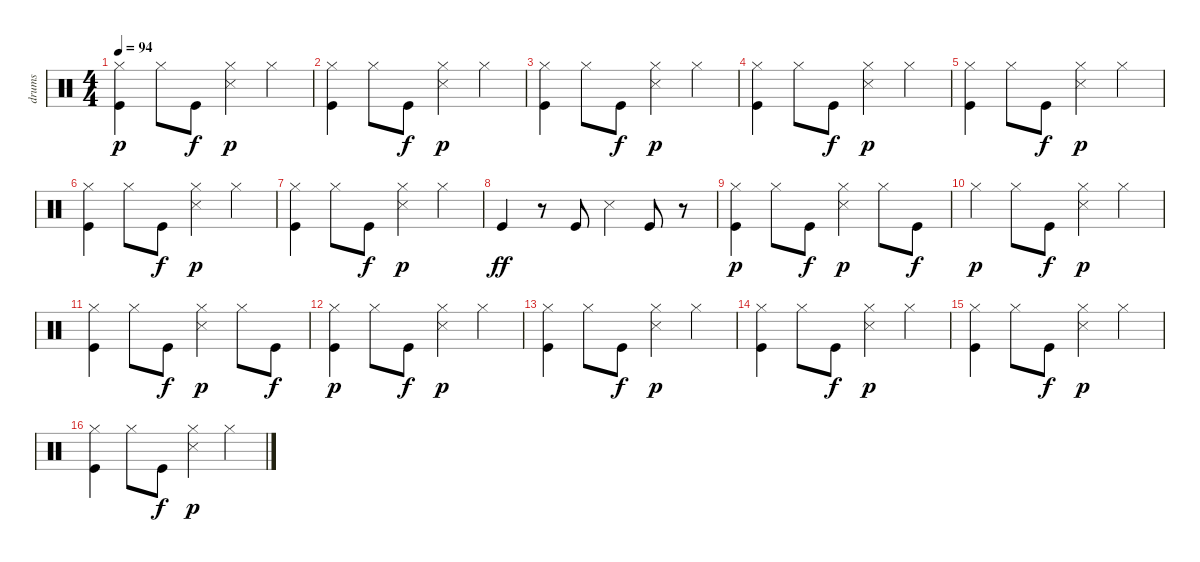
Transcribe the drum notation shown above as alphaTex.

\track ("drums" "drums") {instrument percussion}
\staff {score}
\articulation defaults
\ts (4 4)
\tempo 94
\clef neutral
\ks c
("Kick (hit)" "Hi-Hat (closed)").4{dy p} "Hi-Hat (closed)".8 "Kick (hit)".8{dy f} ("Hi-Hat (closed)" "Snare (side stick) 3").4{dy p} "Hi-Hat (closed)".4 |
("Kick (hit)" "Hi-Hat (closed)").4 "Hi-Hat (closed)".8 "Kick (hit)".8{dy f} ("Hi-Hat (closed)" "Snare (side stick) 3").4{dy p} "Hi-Hat (closed)".4 |
("Kick (hit)" "Hi-Hat (closed)").4 "Hi-Hat (closed)".8 "Kick (hit)".8{dy f} ("Hi-Hat (closed)" "Snare (side stick) 3").4{dy p} "Hi-Hat (closed)".4 |
("Kick (hit)" "Hi-Hat (closed)").4 "Hi-Hat (closed)".8 "Kick (hit)".8{dy f} ("Hi-Hat (closed)" "Snare (side stick) 3").4{dy p} "Hi-Hat (closed)".4 |
("Kick (hit)" "Hi-Hat (closed)").4 "Hi-Hat (closed)".8 "Kick (hit)".8{dy f} ("Hi-Hat (closed)" "Snare (side stick) 3").4{dy p} "Hi-Hat (closed)".4 |
("Kick (hit)" "Hi-Hat (closed)").4 "Hi-Hat (closed)".8 "Kick (hit)".8{dy f} ("Hi-Hat (closed)" "Snare (side stick) 3").4{dy p} "Hi-Hat (closed)".4 |
("Kick (hit)" "Hi-Hat (closed)").4 "Hi-Hat (closed)".8 "Kick (hit)".8{dy f} ("Hi-Hat (closed)" "Snare (side stick) 3").4{dy p} "Hi-Hat (closed)".4 |
"Kick (hit)".4{dy ff} r.8 "Kick (hit)".8 "Snare (side stick) 3".4 "Kick (hit)".8 r.8 |
("Kick (hit)" "Hi-Hat (closed)").4{dy p} "Hi-Hat (closed)".8 "Kick (hit)".8{dy f} ("Hi-Hat (closed)" "Snare (side stick) 3").4{dy p} "Hi-Hat (closed)".8 "Kick (hit)".8{dy f} |
"Hi-Hat (closed)".4{dy p} "Hi-Hat (closed)".8 "Kick (hit)".8{dy f} ("Hi-Hat (closed)" "Snare (side stick) 3").4{dy p} "Hi-Hat (closed)".4 |
("Kick (hit)" "Hi-Hat (closed)").4 "Hi-Hat (closed)".8 "Kick (hit)".8{dy f} ("Hi-Hat (closed)" "Snare (side stick) 3").4{dy p} "Hi-Hat (closed)".8 "Kick (hit)".8{dy f} |
("Kick (hit)" "Hi-Hat (closed)").4{dy p} "Hi-Hat (closed)".8 "Kick (hit)".8{dy f} ("Hi-Hat (closed)" "Snare (side stick) 3").4{dy p} "Hi-Hat (closed)".4 |
("Kick (hit)" "Hi-Hat (closed)").4 "Hi-Hat (closed)".8 "Kick (hit)".8{dy f} ("Hi-Hat (closed)" "Snare (side stick) 3").4{dy p} "Hi-Hat (closed)".4 |
("Kick (hit)" "Hi-Hat (closed)").4 "Hi-Hat (closed)".8 "Kick (hit)".8{dy f} ("Hi-Hat (closed)" "Snare (side stick) 3").4{dy p} "Hi-Hat (closed)".4 |
("Kick (hit)" "Hi-Hat (closed)").4 "Hi-Hat (closed)".8 "Kick (hit)".8{dy f} ("Hi-Hat (closed)" "Snare (side stick) 3").4{dy p} "Hi-Hat (closed)".4 |
("Kick (hit)" "Hi-Hat (closed)").4 "Hi-Hat (closed)".8 "Kick (hit)".8{dy f} ("Hi-Hat (closed)" "Snare (side stick) 3").4{dy p} "Hi-Hat (closed)".4
